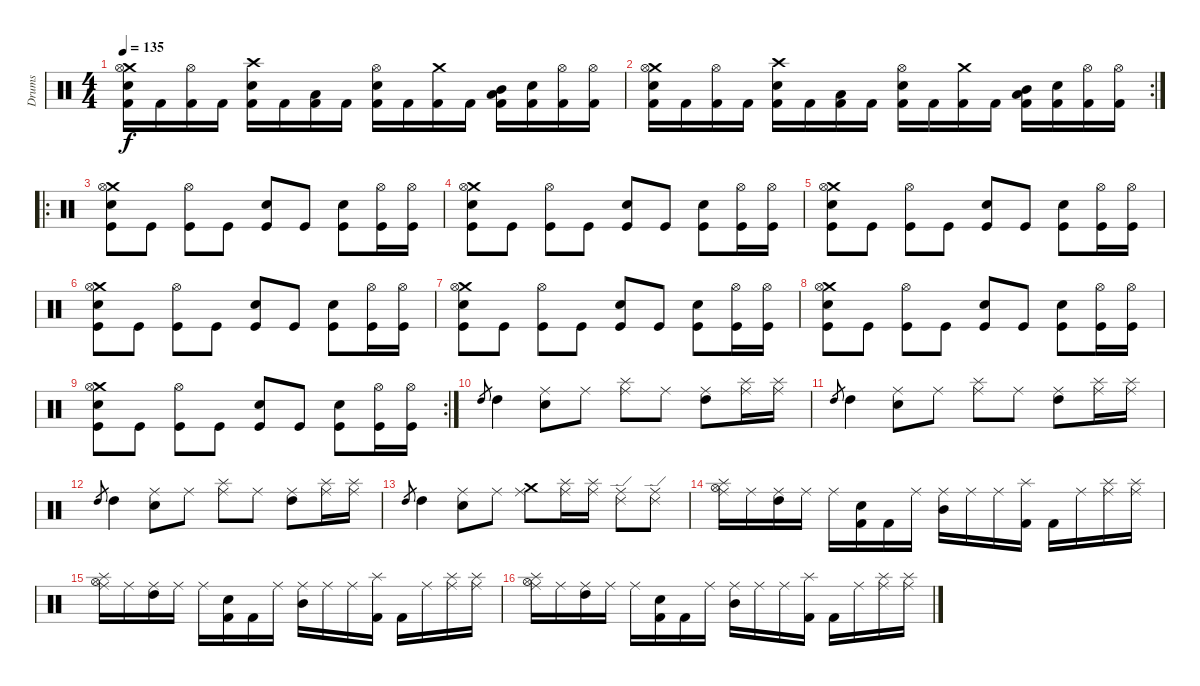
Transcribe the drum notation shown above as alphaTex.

\track ("Drums" "Drums") {instrument percussion}
\staff {score}
\articulation defaults
\ts (4 4)
\tempo 135
\clef neutral
\ks c
("Kick (hit) 2" "Crash medium (hit)" "Hi-Hat (open)" "Electric Snare (hit)").16{dy f} "Kick (hit) 2".16 ("Kick (hit) 2" "Hi-Hat (open)").16 "Kick (hit) 2".16 ("Kick (hit) 2" "Crash high (hit)" "Electric Snare (hit)").16 "Kick (hit) 2".16 ("Kick (hit) 2" "Low Floor Tom (hit)").16 "Kick (hit) 2".16 ("Kick (hit) 2" "Hi-Hat (open)" "Electric Snare (hit)").16 "Kick (hit) 2".16 ("Kick (hit) 2" "Crash medium (hit)").16 "Kick (hit) 2".16 ("Kick (hit) 2" "Low Floor Tom (hit)" "Mid Tom (hit)").16 ("Kick (hit) 2" "Electric Snare (hit)").16 ("Kick (hit) 2" "Hi-Hat (open)").16 ("Kick (hit) 2" "Hi-Hat (open)").16 |
\rc 2
("Kick (hit) 2" "Crash medium (hit)" "Hi-Hat (open)" "Electric Snare (hit)").16 "Kick (hit) 2".16 ("Kick (hit) 2" "Hi-Hat (open)").16 "Kick (hit) 2".16 ("Kick (hit) 2" "Crash high (hit)" "Electric Snare (hit)").16 "Kick (hit) 2".16 ("Kick (hit) 2" "Low Floor Tom (hit)").16 "Kick (hit) 2".16 ("Kick (hit) 2" "Hi-Hat (open)" "Electric Snare (hit)").16 "Kick (hit) 2".16 ("Kick (hit) 2" "Crash medium (hit)").16 "Kick (hit) 2".16 ("Kick (hit) 2" "Low Floor Tom (hit)" "Mid Tom (hit)").16 ("Kick (hit) 2" "Electric Snare (hit)").16 ("Kick (hit) 2" "Hi-Hat (open)").16 ("Kick (hit) 2" "Hi-Hat (open)").16 |
\ro
("Kick (hit)" "Crash medium (hit)" "Hi-Hat (open)" "Electric Snare (hit)").8 "Kick (hit)".8 ("Kick (hit)" "Hi-Hat (open)").8 "Kick (hit)".8 ("Kick (hit)" "Electric Snare (hit)").8 "Kick (hit)".8 ("Kick (hit)" "Electric Snare (hit)").8 ("Kick (hit)" "Hi-Hat (open)").16 ("Kick (hit)" "Hi-Hat (open)").16 |
("Kick (hit)" "Crash medium (hit)" "Hi-Hat (open)" "Electric Snare (hit)").8 "Kick (hit)".8 ("Kick (hit)" "Hi-Hat (open)").8 "Kick (hit)".8 ("Kick (hit)" "Electric Snare (hit)").8 "Kick (hit)".8 ("Kick (hit)" "Electric Snare (hit)").8 ("Kick (hit)" "Hi-Hat (open)").16 ("Kick (hit)" "Hi-Hat (open)").16 |
("Kick (hit)" "Crash medium (hit)" "Hi-Hat (open)" "Electric Snare (hit)").8 "Kick (hit)".8 ("Kick (hit)" "Hi-Hat (open)").8 "Kick (hit)".8 ("Kick (hit)" "Electric Snare (hit)").8 "Kick (hit)".8 ("Kick (hit)" "Electric Snare (hit)").8 ("Kick (hit)" "Hi-Hat (open)").16 ("Kick (hit)" "Hi-Hat (open)").16 |
("Kick (hit)" "Crash medium (hit)" "Hi-Hat (open)" "Electric Snare (hit)").8 "Kick (hit)".8 ("Kick (hit)" "Hi-Hat (open)").8 "Kick (hit)".8 ("Kick (hit)" "Electric Snare (hit)").8 "Kick (hit)".8 ("Kick (hit)" "Electric Snare (hit)").8 ("Kick (hit)" "Hi-Hat (open)").16 ("Kick (hit)" "Hi-Hat (open)").16 |
("Kick (hit)" "Crash medium (hit)" "Hi-Hat (open)" "Electric Snare (hit)").8 "Kick (hit)".8 ("Kick (hit)" "Hi-Hat (open)").8 "Kick (hit)".8 ("Kick (hit)" "Electric Snare (hit)").8 "Kick (hit)".8 ("Kick (hit)" "Electric Snare (hit)").8 ("Kick (hit)" "Hi-Hat (open)").16 ("Kick (hit)" "Hi-Hat (open)").16 |
("Kick (hit)" "Crash medium (hit)" "Hi-Hat (open)" "Electric Snare (hit)").8 "Kick (hit)".8 ("Kick (hit)" "Hi-Hat (open)").8 "Kick (hit)".8 ("Kick (hit)" "Electric Snare (hit)").8 "Kick (hit)".8 ("Kick (hit)" "Electric Snare (hit)").8 ("Kick (hit)" "Hi-Hat (open)").16 ("Kick (hit)" "Hi-Hat (open)").16 |
\rc 2
("Kick (hit)" "Crash medium (hit)" "Hi-Hat (open)" "Electric Snare (hit)").8 "Kick (hit)".8 ("Kick (hit)" "Hi-Hat (open)").8 "Kick (hit)".8 ("Kick (hit)" "Electric Snare (hit)").8 "Kick (hit)".8 ("Kick (hit)" "Electric Snare (hit)").8 ("Kick (hit)" "Hi-Hat (open)").16 ("Kick (hit)" "Hi-Hat (open)").16 |
"High Tom (hit)".8{gr} "High Tom (hit)".4 ("Ride (middle)" "Electric Snare (hit)").8 "Ride (middle)".8 ("Ride (middle)" "Splash (hit)").8 "Ride (middle)".8 ("Ride (middle)" "High Tom (hit)").8 ("Ride (middle)" "Splash (hit)").16 ("Ride (middle)" "Splash (hit)").16 |
"High Tom (hit)".8{gr} "High Tom (hit)".4 ("Ride (middle)" "Electric Snare (hit)").8 "Ride (middle)".8 ("Ride (middle)" "Splash (hit)").8 "Ride (middle)".8 ("Ride (middle)" "High Tom (hit)").8 ("Ride (middle)" "Splash (hit)").16 ("Ride (middle)" "Splash (hit)").16 |
"High Tom (hit)".8{gr} "High Tom (hit)".4 ("Ride (middle)" "Electric Snare (hit)").8 "Ride (middle)".8 ("Ride (middle)" "Splash (hit)").8 "Ride (middle)".8 ("Ride (middle)" "High Tom (hit)").8 ("Ride (middle)" "Splash (hit)").16 ("Ride (middle)" "Splash (hit)").16 |
"High Tom (hit)".8{gr} "High Tom (hit)".4 ("Ride (middle)" "Electric Snare (hit)").8 "Ride (middle)".8 ("Ride (middle)" "Crash medium (hit)").8 ("Ride (middle)" "Splash (hit)").16 ("Ride (middle)" "Splash (hit)").16 ("Ride (middle)" "Ride (edge) 2").8 ("Ride (middle)" "Ride (edge) 2").8 |
("Ride (middle)" "Hi-Hat (open)" "Splash (hit)").16 "Ride (middle)".16 ("Ride (middle)" "High Tom (hit)").16 "Ride (middle)".16 "Ride (middle)".16 ("Kick (hit) 2" "Electric Snare (hit)").16 "Kick (hit) 2".16 "Ride (middle)".16 ("Ride (middle)" "Mid Tom (hit)").16 "Ride (middle)".16 "Ride (middle)".16 ("Kick (hit) 2" "Splash (hit)").16 "Kick (hit) 2".16 "Ride (middle)".16 ("Ride (middle)" "Splash (hit)").16 ("Ride (middle)" "Splash (hit)").16 |
("Ride (middle)" "Hi-Hat (open)" "Splash (hit)").16 "Ride (middle)".16 ("Ride (middle)" "High Tom (hit)").16 "Ride (middle)".16 "Ride (middle)".16 ("Kick (hit) 2" "Electric Snare (hit)").16 "Kick (hit) 2".16 "Ride (middle)".16 ("Ride (middle)" "Mid Tom (hit)").16 "Ride (middle)".16 "Ride (middle)".16 ("Kick (hit) 2" "Splash (hit)").16 "Kick (hit) 2".16 "Ride (middle)".16 ("Ride (middle)" "Splash (hit)").16 ("Ride (middle)" "Splash (hit)").16 |
("Ride (middle)" "Hi-Hat (open)" "Splash (hit)").16 "Ride (middle)".16 ("Ride (middle)" "High Tom (hit)").16 "Ride (middle)".16 "Ride (middle)".16 ("Kick (hit) 2" "Electric Snare (hit)").16 "Kick (hit) 2".16 "Ride (middle)".16 ("Ride (middle)" "Mid Tom (hit)").16 "Ride (middle)".16 "Ride (middle)".16 ("Kick (hit) 2" "Splash (hit)").16 "Kick (hit) 2".16 "Ride (middle)".16 ("Ride (middle)" "Splash (hit)").16 ("Ride (middle)" "Splash (hit)").16
